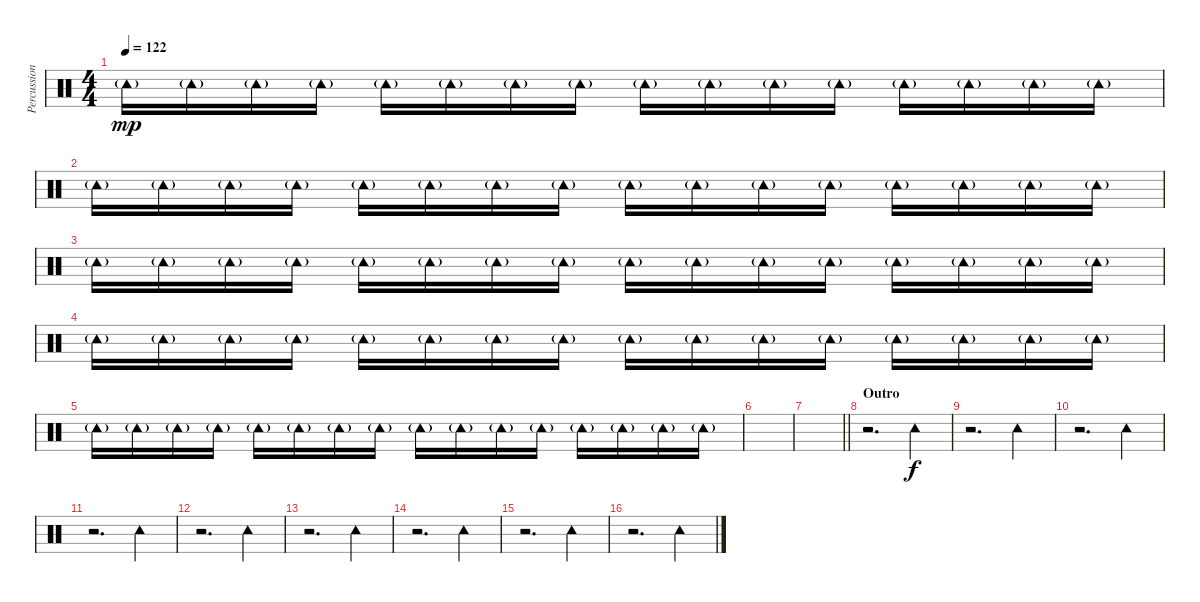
\track ("Percussioni" "Percussion") {instrument percussion}
\staff {score}
\articulation defaults
\ts (4 4)
\tempo 122
\clef neutral
\ks c "Tambourine (hit)"{g}.16{dy mp} "Tambourine (hit)"{g}.16 "Tambourine (hit)"{g}.16 "Tambourine (hit)"{g}.16 "Tambourine (hit)"{g}.16 "Tambourine (hit)"{g}.16 "Tambourine (hit)"{g}.16 "Tambourine (hit)"{g}.16 "Tambourine (hit)"{g}.16 "Tambourine (hit)"{g}.16 "Tambourine (hit)"{g}.16 "Tambourine (hit)"{g}.16 "Tambourine (hit)"{g}.16 "Tambourine (hit)"{g}.16 "Tambourine (hit)"{g}.16 "Tambourine (hit)"{g}.16
|
"Tambourine (hit)"{g}.16 "Tambourine (hit)"{g}.16 "Tambourine (hit)"{g}.16 "Tambourine (hit)"{g}.16 "Tambourine (hit)"{g}.16 "Tambourine (hit)"{g}.16 "Tambourine (hit)"{g}.16 "Tambourine (hit)"{g}.16 "Tambourine (hit)"{g}.16 "Tambourine (hit)"{g}.16 "Tambourine (hit)"{g}.16 "Tambourine (hit)"{g}.16 "Tambourine (hit)"{g}.16 "Tambourine (hit)"{g}.16 "Tambourine (hit)"{g}.16 "Tambourine (hit)"{g}.16 |
"Tambourine (hit)"{g}.16 "Tambourine (hit)"{g}.16 "Tambourine (hit)"{g}.16 "Tambourine (hit)"{g}.16 "Tambourine (hit)"{g}.16 "Tambourine (hit)"{g}.16 "Tambourine (hit)"{g}.16 "Tambourine (hit)"{g}.16 "Tambourine (hit)"{g}.16 "Tambourine (hit)"{g}.16 "Tambourine (hit)"{g}.16 "Tambourine (hit)"{g}.16 "Tambourine (hit)"{g}.16 "Tambourine (hit)"{g}.16 "Tambourine (hit)"{g}.16 "Tambourine (hit)"{g}.16 |
"Tambourine (hit)"{g}.16 "Tambourine (hit)"{g}.16 "Tambourine (hit)"{g}.16 "Tambourine (hit)"{g}.16 "Tambourine (hit)"{g}.16 "Tambourine (hit)"{g}.16 "Tambourine (hit)"{g}.16 "Tambourine (hit)"{g}.16 "Tambourine (hit)"{g}.16 "Tambourine (hit)"{g}.16 "Tambourine (hit)"{g}.16 "Tambourine (hit)"{g}.16 "Tambourine (hit)"{g}.16 "Tambourine (hit)"{g}.16 "Tambourine (hit)"{g}.16 "Tambourine (hit)"{g}.16 |
"Tambourine (hit)"{g}.16 "Tambourine (hit)"{g}.16 "Tambourine (hit)"{g}.16 "Tambourine (hit)"{g}.16 "Tambourine (hit)"{g}.16 "Tambourine (hit)"{g}.16 "Tambourine (hit)"{g}.16 "Tambourine (hit)"{g}.16 "Tambourine (hit)"{g}.16 "Tambourine (hit)"{g}.16 "Tambourine (hit)"{g}.16 "Tambourine (hit)"{g}.16 "Tambourine (hit)"{g}.16 "Tambourine (hit)"{g}.16 "Tambourine (hit)"{g}.16 "Tambourine (hit)"{g}.16 |
|
\barLineRight lightlight
|
\section ("" "Outro")
r.2{d} "Tambourine (hit)".4{dy f} |
r.2{d} "Tambourine (hit)".4 |
r.2{d} "Tambourine (hit)".4 |
r.2{d} "Tambourine (hit)".4 |
r.2{d} "Tambourine (hit)".4 |
r.2{d} "Tambourine (hit)".4 |
r.2{d} "Tambourine (hit)".4 |
r.2{d} "Tambourine (hit)".4 |
r.2{d} "Tambourine (hit)".4
